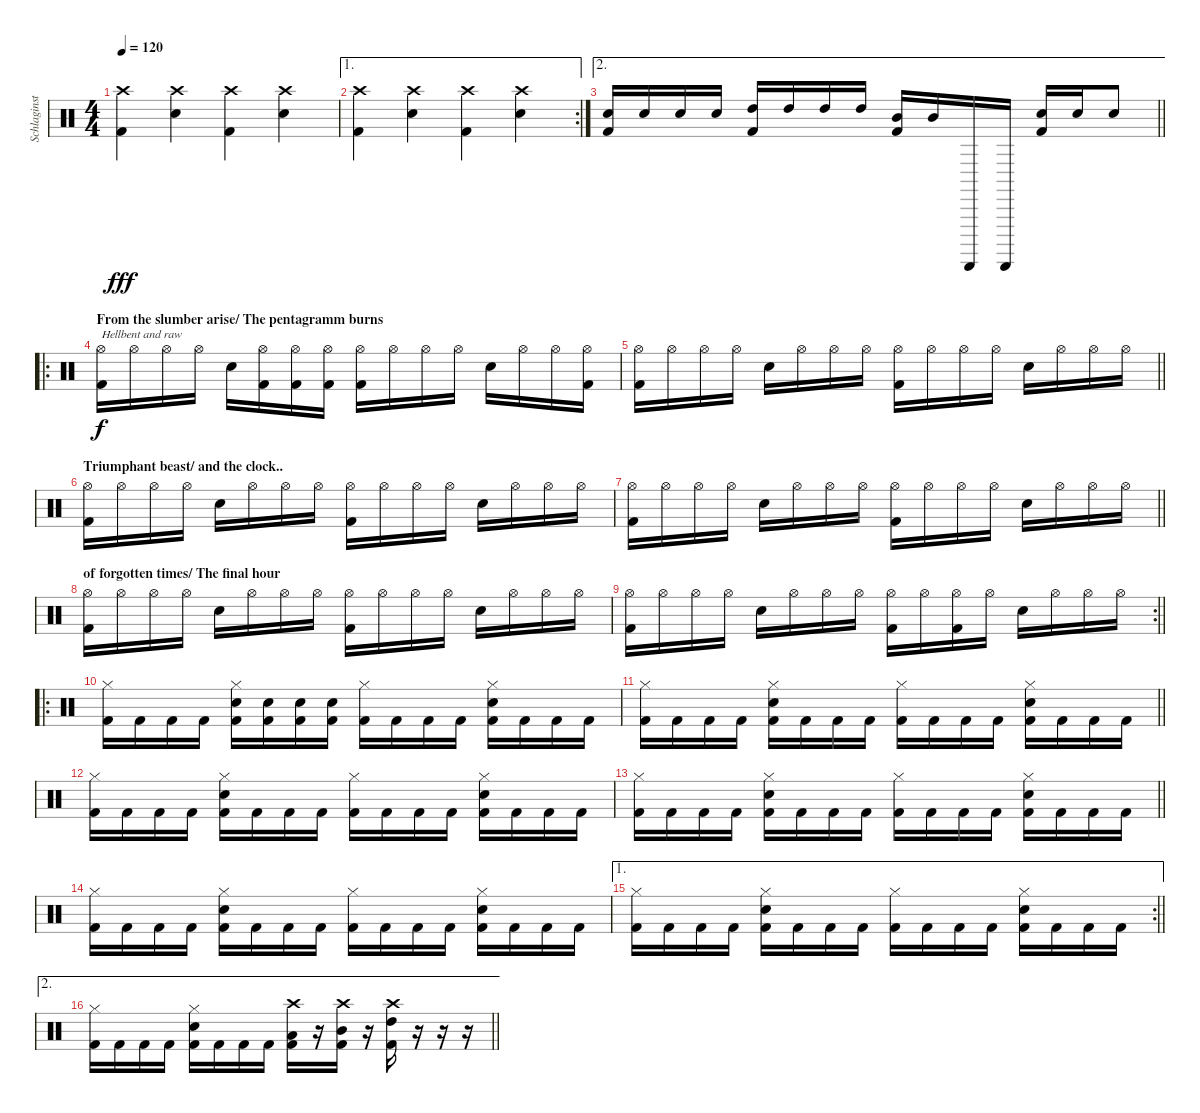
\track ("Schlaginstrumente - Auswahl" "Schlaginst") {instrument percussion}
\staff {score}
\articulation defaults
\ts (4 4)
\tempo 120
\clef neutral
\ks c
("Crash high (hit)" "Kick (hit) 2").4{dy fff} ("Crash high (hit)" "Electric Snare (hit)").4 ("Crash high (hit)" "Kick (hit) 2").4 ("Crash high (hit)" "Electric Snare (hit)").4 |
\ae 1
\rc 2
("Crash high (hit)" "Kick (hit) 2").4 ("Crash high (hit)" "Electric Snare (hit)").4 ("Crash high (hit)" "Kick (hit) 2").4 ("Crash high (hit)" "Electric Snare (hit)").4 |
\ae 2
\barLineRight lightlight
("Electric Snare (hit)" "Kick (hit) 2").16 "Electric Snare (hit)".16 "Electric Snare (hit)".16 "Electric Snare (hit)".16 ("High Tom (hit)" "Kick (hit) 2").16 "High Tom (hit)".16 "High Tom (hit)".16 "High Tom (hit)".16 ("Mid Tom (hit)" "Kick (hit) 2").16 "Mid Tom (hit)".16 "Guiro (scrap-return)".16 "Guiro (scrap-return)".16 ("Electric Snare (hit)" "Kick (hit) 2").16 "Electric Snare (hit)".16 "Electric Snare (hit)".8 |
\ro
\section ("" "From the slumber arise/ The pentagramm burns")
("Hi-Hat (open)" "Kick (hit) 2").16{txt "Hellbent and raw" dy f} "Hi-Hat (open)".16 "Hi-Hat (open)".16 "Hi-Hat (open)".16 "Electric Snare (hit)".16 ("Hi-Hat (open)" "Kick (hit) 2").16 ("Hi-Hat (open)" "Kick (hit) 2").16 ("Hi-Hat (open)" "Kick (hit) 2").16 ("Hi-Hat (open)" "Kick (hit) 2").16 "Hi-Hat (open)".16 "Hi-Hat (open)".16 "Hi-Hat (open)".16 "Electric Snare (hit)".16 "Hi-Hat (open)".16 "Hi-Hat (open)".16 ("Hi-Hat (open)" "Kick (hit) 2").16 |
\barLineRight lightlight
("Hi-Hat (open)" "Kick (hit) 2").16 "Hi-Hat (open)".16 "Hi-Hat (open)".16 "Hi-Hat (open)".16 "Electric Snare (hit)".16 "Hi-Hat (open)".16 "Hi-Hat (open)".16 "Hi-Hat (open)".16 ("Hi-Hat (open)" "Kick (hit) 2").16 "Hi-Hat (open)".16 "Hi-Hat (open)".16 "Hi-Hat (open)".16 "Electric Snare (hit)".16 "Hi-Hat (open)".16 "Hi-Hat (open)".16 "Hi-Hat (open)".16 |
\section ("" "Triumphant beast/ and the clock..")
("Hi-Hat (open)" "Kick (hit) 2").16 "Hi-Hat (open)".16 "Hi-Hat (open)".16 "Hi-Hat (open)".16 "Electric Snare (hit)".16 "Hi-Hat (open)".16 "Hi-Hat (open)".16 "Hi-Hat (open)".16 ("Hi-Hat (open)" "Kick (hit) 2").16 "Hi-Hat (open)".16 "Hi-Hat (open)".16 "Hi-Hat (open)".16 "Electric Snare (hit)".16 "Hi-Hat (open)".16 "Hi-Hat (open)".16 "Hi-Hat (open)".16 |
\barLineRight lightlight
("Hi-Hat (open)" "Kick (hit) 2").16 "Hi-Hat (open)".16 "Hi-Hat (open)".16 "Hi-Hat (open)".16 "Electric Snare (hit)".16 "Hi-Hat (open)".16 "Hi-Hat (open)".16 "Hi-Hat (open)".16 ("Hi-Hat (open)" "Kick (hit) 2").16 "Hi-Hat (open)".16 "Hi-Hat (open)".16 "Hi-Hat (open)".16 "Electric Snare (hit)".16 "Hi-Hat (open)".16 "Hi-Hat (open)".16 "Hi-Hat (open)".16 |
\section ("" "of forgotten times/ The final hour")
("Hi-Hat (open)" "Kick (hit) 2").16 "Hi-Hat (open)".16 "Hi-Hat (open)".16 "Hi-Hat (open)".16 "Electric Snare (hit)".16 "Hi-Hat (open)".16 "Hi-Hat (open)".16 "Hi-Hat (open)".16 ("Hi-Hat (open)" "Kick (hit) 2").16 "Hi-Hat (open)".16 "Hi-Hat (open)".16 "Hi-Hat (open)".16 "Electric Snare (hit)".16 "Hi-Hat (open)".16 "Hi-Hat (open)".16 "Hi-Hat (open)".16 |
\rc 2
\barLineRight lightlight
("Hi-Hat (open)" "Kick (hit) 2").16 "Hi-Hat (open)".16 "Hi-Hat (open)".16 "Hi-Hat (open)".16 "Electric Snare (hit)".16 "Hi-Hat (open)".16 "Hi-Hat (open)".16 "Hi-Hat (open)".16 ("Hi-Hat (open)" "Kick (hit) 2").16 "Hi-Hat (open)".16 ("Hi-Hat (open)" "Kick (hit) 2").16 "Hi-Hat (open)".16 "Electric Snare (hit)".16 "Hi-Hat (open)".16 "Hi-Hat (open)".16 "Hi-Hat (open)".16 |
\ro
("Hi-Hat (closed)" "Kick (hit) 2").16 "Kick (hit) 2".16 "Kick (hit) 2".16 "Kick (hit) 2".16 ("Hi-Hat (closed)" "Electric Snare (hit)" "Kick (hit) 2").16 ("Electric Snare (hit)" "Kick (hit) 2").16 ("Electric Snare (hit)" "Kick (hit) 2").16 ("Electric Snare (hit)" "Kick (hit) 2").16 ("Hi-Hat (closed)" "Kick (hit) 2").16 "Kick (hit) 2".16 "Kick (hit) 2".16 "Kick (hit) 2".16 ("Hi-Hat (closed)" "Electric Snare (hit)" "Kick (hit) 2").16 "Kick (hit) 2".16 "Kick (hit) 2".16 "Kick (hit) 2".16 |
\barLineRight lightlight
("Hi-Hat (closed)" "Kick (hit) 2").16 "Kick (hit) 2".16 "Kick (hit) 2".16 "Kick (hit) 2".16 ("Hi-Hat (closed)" "Electric Snare (hit)" "Kick (hit) 2").16 "Kick (hit) 2".16 "Kick (hit) 2".16 "Kick (hit) 2".16 ("Hi-Hat (closed)" "Kick (hit) 2").16 "Kick (hit) 2".16 "Kick (hit) 2".16 "Kick (hit) 2".16 ("Hi-Hat (closed)" "Electric Snare (hit)" "Kick (hit) 2").16 "Kick (hit) 2".16 "Kick (hit) 2".16 "Kick (hit) 2".16 |
("Hi-Hat (closed)" "Kick (hit) 2").16 "Kick (hit) 2".16 "Kick (hit) 2".16 "Kick (hit) 2".16 ("Hi-Hat (closed)" "Electric Snare (hit)" "Kick (hit) 2").16 "Kick (hit) 2".16 "Kick (hit) 2".16 "Kick (hit) 2".16 ("Hi-Hat (closed)" "Kick (hit) 2").16 "Kick (hit) 2".16 "Kick (hit) 2".16 "Kick (hit) 2".16 ("Hi-Hat (closed)" "Electric Snare (hit)" "Kick (hit) 2").16 "Kick (hit) 2".16 "Kick (hit) 2".16 "Kick (hit) 2".16 |
\barLineRight lightlight
("Hi-Hat (closed)" "Kick (hit) 2").16 "Kick (hit) 2".16 "Kick (hit) 2".16 "Kick (hit) 2".16 ("Hi-Hat (closed)" "Electric Snare (hit)" "Kick (hit) 2").16 "Kick (hit) 2".16 "Kick (hit) 2".16 "Kick (hit) 2".16 ("Hi-Hat (closed)" "Kick (hit) 2").16 "Kick (hit) 2".16 "Kick (hit) 2".16 "Kick (hit) 2".16 ("Hi-Hat (closed)" "Electric Snare (hit)" "Kick (hit) 2").16 "Kick (hit) 2".16 "Kick (hit) 2".16 "Kick (hit) 2".16 |
("Hi-Hat (closed)" "Kick (hit) 2").16 "Kick (hit) 2".16 "Kick (hit) 2".16 "Kick (hit) 2".16 ("Hi-Hat (closed)" "Electric Snare (hit)" "Kick (hit) 2").16 "Kick (hit) 2".16 "Kick (hit) 2".16 "Kick (hit) 2".16 ("Hi-Hat (closed)" "Kick (hit) 2").16 "Kick (hit) 2".16 "Kick (hit) 2".16 "Kick (hit) 2".16 ("Hi-Hat (closed)" "Electric Snare (hit)" "Kick (hit) 2").16 "Kick (hit) 2".16 "Kick (hit) 2".16 "Kick (hit) 2".16 |
\ae 1
\rc 2
\barLineRight lightlight
("Hi-Hat (closed)" "Kick (hit) 2").16 "Kick (hit) 2".16 "Kick (hit) 2".16 "Kick (hit) 2".16 ("Hi-Hat (closed)" "Electric Snare (hit)" "Kick (hit) 2").16 "Kick (hit) 2".16 "Kick (hit) 2".16 "Kick (hit) 2".16 ("Hi-Hat (closed)" "Kick (hit) 2").16 "Kick (hit) 2".16 "Kick (hit) 2".16 "Kick (hit) 2".16 ("Hi-Hat (closed)" "Electric Snare (hit)" "Kick (hit) 2").16 "Kick (hit) 2".16 "Kick (hit) 2".16 "Kick (hit) 2".16 |
\ae 2
\barLineRight lightlight
("Hi-Hat (closed)" "Kick (hit) 2").16 "Kick (hit) 2".16 "Kick (hit) 2".16 "Kick (hit) 2".16 ("Hi-Hat (closed)" "Electric Snare (hit)" "Kick (hit) 2").16 "Kick (hit) 2".16 "Kick (hit) 2".16 "Kick (hit) 2".16 ("Crash high (hit)" "Low Tom (hit)" "Kick (hit) 2").16 r.16 ("Crash high (hit)" "Mid Tom (hit)" "Kick (hit) 2").16 r.16 ("Crash high (hit)" "High Tom (hit)" "Kick (hit) 2").16 r.16 r.16 r.16
